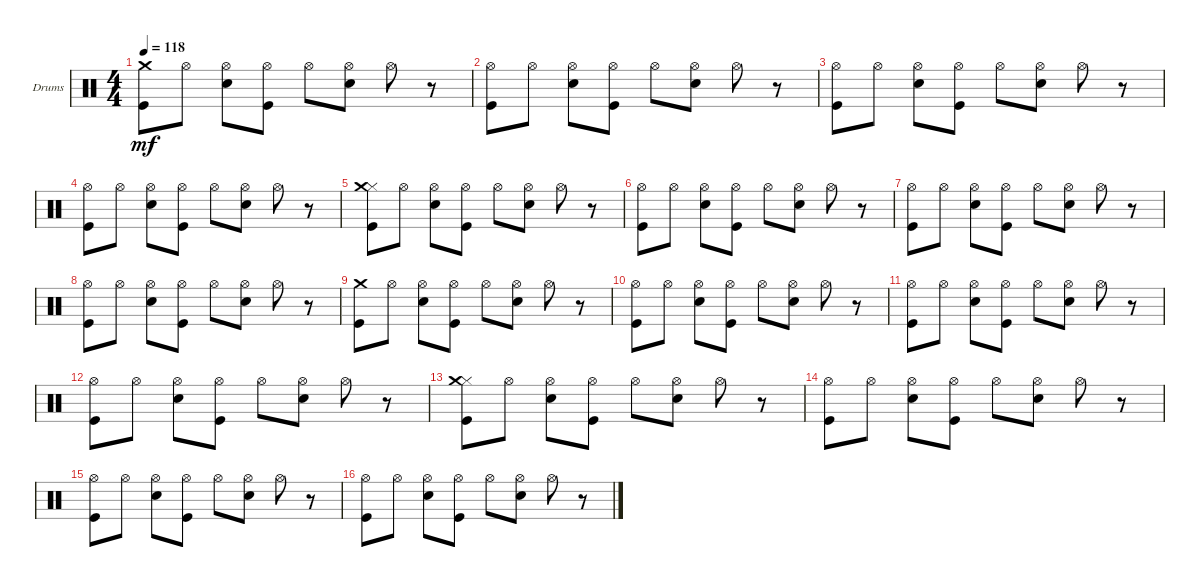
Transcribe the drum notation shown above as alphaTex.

\defaultSystemsLayout 4
\bracketExtendMode groupsimilarinstruments
\firstSystemTrackNameOrientation horizontal
\otherSystemsTrackNameOrientation horizontal
\track ("Drumkit" "Drums") {instrument percussion}
\staff {score}
\articulation defaults
\ts (4 4)
\tempo 118
\clef neutral
\ks c
("Kick (hit)" "Crash medium (hit)").8{dy mf} "Hi-Hat (open)".8 ("Hi-Hat (open)" "Snare (hit) 2").8 ("Hi-Hat (open)" "Kick (hit)").8 "Hi-Hat (open)".8 ("Hi-Hat (open)" "Snare (hit) 2").8 "Hi-Hat (open)".8 r.8 |
("Hi-Hat (open)" "Kick (hit)").8 "Hi-Hat (open)".8 ("Hi-Hat (open)" "Snare (hit) 2").8 ("Hi-Hat (open)" "Kick (hit)").8 "Hi-Hat (open)".8 ("Hi-Hat (open)" "Snare (hit) 2").8 "Hi-Hat (open)".8 r.8 |
("Hi-Hat (open)" "Kick (hit)").8 "Hi-Hat (open)".8 ("Hi-Hat (open)" "Snare (hit) 2").8 ("Hi-Hat (open)" "Kick (hit)").8 "Hi-Hat (open)".8 ("Hi-Hat (open)" "Snare (hit) 2").8 "Hi-Hat (open)".8 r.8 |
("Hi-Hat (open)" "Kick (hit)").8 "Hi-Hat (open)".8 ("Hi-Hat (open)" "Snare (hit) 2").8 ("Hi-Hat (open)" "Kick (hit)").8 "Hi-Hat (open)".8 ("Hi-Hat (open)" "Snare (hit) 2").8 "Hi-Hat (open)".8 r.8 |
("Kick (hit)" "Hi-Hat (closed)" "Crash medium (hit)").8 "Hi-Hat (open)".8 ("Hi-Hat (open)" "Snare (hit) 2").8 ("Hi-Hat (open)" "Kick (hit)").8 "Hi-Hat (open)".8 ("Hi-Hat (open)" "Snare (hit) 2").8 "Hi-Hat (open)".8 r.8 |
("Hi-Hat (open)" "Kick (hit)").8 "Hi-Hat (open)".8 ("Hi-Hat (open)" "Snare (hit) 2").8 ("Hi-Hat (open)" "Kick (hit)").8 "Hi-Hat (open)".8 ("Hi-Hat (open)" "Snare (hit) 2").8 "Hi-Hat (open)".8 r.8 |
("Hi-Hat (open)" "Kick (hit)").8 "Hi-Hat (open)".8 ("Hi-Hat (open)" "Snare (hit) 2").8 ("Hi-Hat (open)" "Kick (hit)").8 "Hi-Hat (open)".8 ("Hi-Hat (open)" "Snare (hit) 2").8 "Hi-Hat (open)".8 r.8 |
("Hi-Hat (open)" "Kick (hit)").8 "Hi-Hat (open)".8 ("Hi-Hat (open)" "Snare (hit) 2").8 ("Hi-Hat (open)" "Kick (hit)").8 "Hi-Hat (open)".8 ("Hi-Hat (open)" "Snare (hit) 2").8 "Hi-Hat (open)".8 r.8 |
("Kick (hit)" "Crash medium (hit)").8 "Hi-Hat (open)".8 ("Hi-Hat (open)" "Snare (hit) 2").8 ("Hi-Hat (open)" "Kick (hit)").8 "Hi-Hat (open)".8 ("Hi-Hat (open)" "Snare (hit) 2").8 "Hi-Hat (open)".8 r.8 |
("Hi-Hat (open)" "Kick (hit)").8 "Hi-Hat (open)".8 ("Hi-Hat (open)" "Snare (hit) 2").8 ("Hi-Hat (open)" "Kick (hit)").8 "Hi-Hat (open)".8 ("Hi-Hat (open)" "Snare (hit) 2").8 "Hi-Hat (open)".8 r.8 |
("Hi-Hat (open)" "Kick (hit)").8 "Hi-Hat (open)".8 ("Hi-Hat (open)" "Snare (hit) 2").8 ("Hi-Hat (open)" "Kick (hit)").8 "Hi-Hat (open)".8 ("Hi-Hat (open)" "Snare (hit) 2").8 "Hi-Hat (open)".8 r.8 |
("Hi-Hat (open)" "Kick (hit)").8 "Hi-Hat (open)".8 ("Hi-Hat (open)" "Snare (hit) 2").8 ("Hi-Hat (open)" "Kick (hit)").8 "Hi-Hat (open)".8 ("Hi-Hat (open)" "Snare (hit) 2").8 "Hi-Hat (open)".8 r.8 |
("Kick (hit)" "Hi-Hat (closed)" "Crash medium (hit)").8 "Hi-Hat (open)".8 ("Hi-Hat (open)" "Snare (hit) 2").8 ("Hi-Hat (open)" "Kick (hit)").8 "Hi-Hat (open)".8 ("Hi-Hat (open)" "Snare (hit) 2").8 "Hi-Hat (open)".8 r.8 |
("Hi-Hat (open)" "Kick (hit)").8 "Hi-Hat (open)".8 ("Hi-Hat (open)" "Snare (hit) 2").8 ("Hi-Hat (open)" "Kick (hit)").8 "Hi-Hat (open)".8 ("Hi-Hat (open)" "Snare (hit) 2").8 "Hi-Hat (open)".8 r.8 |
("Hi-Hat (open)" "Kick (hit)").8 "Hi-Hat (open)".8 ("Hi-Hat (open)" "Snare (hit) 2").8 ("Hi-Hat (open)" "Kick (hit)").8 "Hi-Hat (open)".8 ("Hi-Hat (open)" "Snare (hit) 2").8 "Hi-Hat (open)".8 r.8 |
("Hi-Hat (open)" "Kick (hit)").8 "Hi-Hat (open)".8 ("Hi-Hat (open)" "Snare (hit) 2").8 ("Hi-Hat (open)" "Kick (hit)").8 "Hi-Hat (open)".8 ("Hi-Hat (open)" "Snare (hit) 2").8 "Hi-Hat (open)".8 r.8
